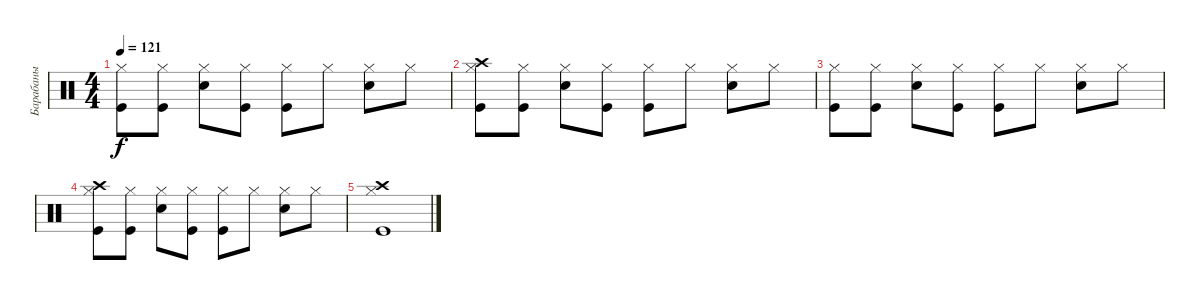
\track ("Барабаны" "Барабаны") {instrument percussion}
\staff {score}
\articulation defaults
\ts (4 4)
\tempo 121
\clef neutral
\ks c
("Kick (hit)" "Hi-Hat (closed)").8{dy f} ("Kick (hit)" "Hi-Hat (closed)").8 ("Snare (hit) 2" "Hi-Hat (closed)").8 ("Kick (hit)" "Hi-Hat (closed)").8 ("Kick (hit)" "Hi-Hat (closed)").8 "Hi-Hat (closed)".8 ("Snare (hit) 2" "Hi-Hat (closed)").8 "Hi-Hat (closed)".8 |
("Kick (hit)" "Hi-Hat (closed)" "Crash high (hit)").8 ("Kick (hit)" "Hi-Hat (closed)").8 ("Snare (hit) 2" "Hi-Hat (closed)").8 ("Kick (hit)" "Hi-Hat (closed)").8 ("Kick (hit)" "Hi-Hat (closed)").8 "Hi-Hat (closed)".8 ("Snare (hit) 2" "Hi-Hat (closed)").8 "Hi-Hat (closed)".8 |
("Kick (hit)" "Hi-Hat (closed)").8 ("Kick (hit)" "Hi-Hat (closed)").8 ("Snare (hit) 2" "Hi-Hat (closed)").8 ("Kick (hit)" "Hi-Hat (closed)").8 ("Kick (hit)" "Hi-Hat (closed)").8 "Hi-Hat (closed)".8 ("Snare (hit) 2" "Hi-Hat (closed)").8 "Hi-Hat (closed)".8 |
("Kick (hit)" "Hi-Hat (closed)" "Crash high (hit)").8 ("Kick (hit)" "Hi-Hat (closed)").8 ("Snare (hit) 2" "Hi-Hat (closed)").8 ("Kick (hit)" "Hi-Hat (closed)").8 ("Kick (hit)" "Hi-Hat (closed)").8 "Hi-Hat (closed)".8 ("Snare (hit) 2" "Hi-Hat (closed)").8 "Hi-Hat (closed)".8 |
("Kick (hit)" "Hi-Hat (closed)" "Crash high (hit)").1
